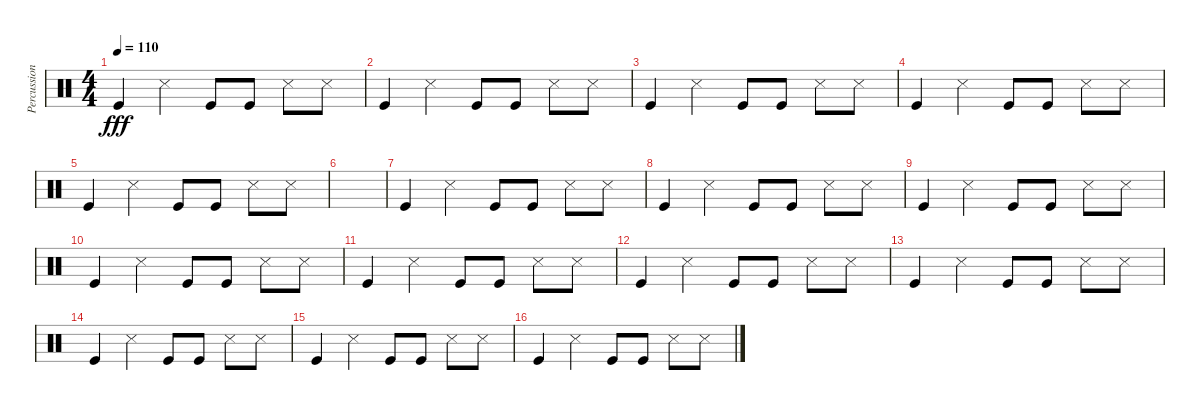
\track ("Percussion" "Percussion") {instrument percussion}
\staff {score}
\articulation defaults
\ts (4 4)
\tempo 110
\clef neutral
\ks c "Kick (hit)".4{dy fff} "Snare (side stick) 3".4 "Kick (hit)".8 "Kick (hit)".8 "Snare (side stick) 3".8 "Snare (side stick) 3".8
|
"Kick (hit)".4 "Snare (side stick) 3".4 "Kick (hit)".8 "Kick (hit)".8 "Snare (side stick) 3".8 "Snare (side stick) 3".8 |
"Kick (hit)".4 "Snare (side stick) 3".4 "Kick (hit)".8 "Kick (hit)".8 "Snare (side stick) 3".8 "Snare (side stick) 3".8 |
"Kick (hit)".4 "Snare (side stick) 3".4 "Kick (hit)".8 "Kick (hit)".8 "Snare (side stick) 3".8 "Snare (side stick) 3".8 |
"Kick (hit)".4 "Snare (side stick) 3".4 "Kick (hit)".8 "Kick (hit)".8 "Snare (side stick) 3".8 "Snare (side stick) 3".8 |
|
"Kick (hit)".4 "Snare (side stick) 3".4 "Kick (hit)".8 "Kick (hit)".8 "Snare (side stick) 3".8 "Snare (side stick) 3".8 |
"Kick (hit)".4 "Snare (side stick) 3".4 "Kick (hit)".8 "Kick (hit)".8 "Snare (side stick) 3".8 "Snare (side stick) 3".8 |
"Kick (hit)".4 "Snare (side stick) 3".4 "Kick (hit)".8 "Kick (hit)".8 "Snare (side stick) 3".8 "Snare (side stick) 3".8 |
"Kick (hit)".4 "Snare (side stick) 3".4 "Kick (hit)".8 "Kick (hit)".8 "Snare (side stick) 3".8 "Snare (side stick) 3".8 |
"Kick (hit)".4 "Snare (side stick) 3".4 "Kick (hit)".8 "Kick (hit)".8 "Snare (side stick) 3".8 "Snare (side stick) 3".8 |
"Kick (hit)".4 "Snare (side stick) 3".4 "Kick (hit)".8 "Kick (hit)".8 "Snare (side stick) 3".8 "Snare (side stick) 3".8 |
"Kick (hit)".4 "Snare (side stick) 3".4 "Kick (hit)".8 "Kick (hit)".8 "Snare (side stick) 3".8 "Snare (side stick) 3".8 |
"Kick (hit)".4 "Snare (side stick) 3".4 "Kick (hit)".8 "Kick (hit)".8 "Snare (side stick) 3".8 "Snare (side stick) 3".8 |
"Kick (hit)".4 "Snare (side stick) 3".4 "Kick (hit)".8 "Kick (hit)".8 "Snare (side stick) 3".8 "Snare (side stick) 3".8 |
"Kick (hit)".4 "Snare (side stick) 3".4 "Kick (hit)".8 "Kick (hit)".8 "Snare (side stick) 3".8 "Snare (side stick) 3".8
